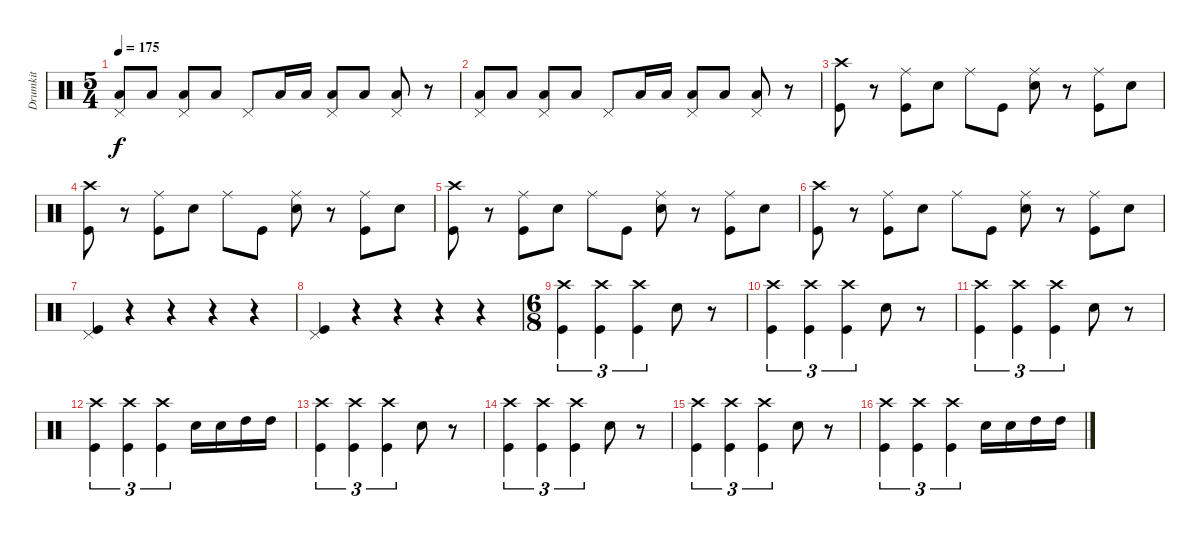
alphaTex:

\track ("Drumkit" "Drumkit") {instrument percussion}
\staff {score}
\articulation defaults
\ts (5 4)
\tempo 175
\clef neutral
\ks c
("Low Tom (hit)" "Pedal Hi-Hat (hit)").8{dy f} "Low Tom (hit)".8 ("Low Tom (hit)" "Pedal Hi-Hat (hit)").8 "Low Tom (hit)".8 "Pedal Hi-Hat (hit)".8 "Low Tom (hit)".16 "Low Tom (hit)".16 ("Low Tom (hit)" "Pedal Hi-Hat (hit)").8 "Low Tom (hit)".8 ("Low Tom (hit)" "Pedal Hi-Hat (hit)").8 r.8 |
("Low Tom (hit)" "Pedal Hi-Hat (hit)").8 "Low Tom (hit)".8 ("Low Tom (hit)" "Pedal Hi-Hat (hit)").8 "Low Tom (hit)".8 "Pedal Hi-Hat (hit)".8 "Low Tom (hit)".16 "Low Tom (hit)".16 ("Low Tom (hit)" "Pedal Hi-Hat (hit)").8 "Low Tom (hit)".8 ("Low Tom (hit)" "Pedal Hi-Hat (hit)").8 r.8 |
("Kick (hit)" "Crash high (hit)").8 r.8 ("Kick (hit)" "Ride (middle)").8 "Snare (hit) 2".8 "Ride (middle)".8 "Kick (hit)".8 ("Snare (hit) 2" "Ride (middle)").8 r.8 ("Kick (hit)" "Ride (middle)").8 "Snare (hit) 2".8 |
("Kick (hit)" "Crash high (hit)").8 r.8 ("Kick (hit)" "Ride (middle)").8 "Snare (hit) 2".8 "Ride (middle)".8 "Kick (hit)".8 ("Snare (hit) 2" "Ride (middle)").8 r.8 ("Kick (hit)" "Ride (middle)").8 "Snare (hit) 2".8 |
("Kick (hit)" "Crash high (hit)").8 r.8 ("Kick (hit)" "Ride (middle)").8 "Snare (hit) 2".8 "Ride (middle)".8 "Kick (hit)".8 ("Snare (hit) 2" "Ride (middle)").8 r.8 ("Kick (hit)" "Ride (middle)").8 "Snare (hit) 2".8 |
("Kick (hit)" "Crash high (hit)").8 r.8 ("Kick (hit)" "Ride (middle)").8 "Snare (hit) 2".8 "Ride (middle)".8 "Kick (hit)".8 ("Snare (hit) 2" "Ride (middle)").8 r.8 ("Kick (hit)" "Ride (middle)").8 "Snare (hit) 2".8 |
("Kick (hit)" "Pedal Hi-Hat (hit)").4 r.4 r.4 r.4 r.4 |
("Kick (hit)" "Pedal Hi-Hat (hit)").4 r.4 r.4 r.4 r.4 |
\ts (6 8)
("Kick (hit)" "Crash high (hit)").4{tu (3 2)} ("Kick (hit)" "Crash high (hit)").4{tu (3 2)} ("Kick (hit)" "Crash high (hit)").4{tu (3 2)} "Snare (hit) 2".8 r.8 |
("Kick (hit)" "Crash high (hit)").4{tu (3 2)} ("Kick (hit)" "Crash high (hit)").4{tu (3 2)} ("Kick (hit)" "Crash high (hit)").4{tu (3 2)} "Snare (hit) 2".8 r.8 |
("Kick (hit)" "Crash high (hit)").4{tu (3 2)} ("Kick (hit)" "Crash high (hit)").4{tu (3 2)} ("Kick (hit)" "Crash high (hit)").4{tu (3 2)} "Snare (hit) 2".8 r.8 |
("Kick (hit)" "Crash high (hit)").4{tu (3 2)} ("Kick (hit)" "Crash high (hit)").4{tu (3 2)} ("Kick (hit)" "Crash high (hit)").4{tu (3 2)} "Snare (hit) 2".16 "Snare (hit) 2".16 "High Tom (hit)".16 "High Tom (hit)".16 |
("Kick (hit)" "Crash high (hit)").4{tu (3 2)} ("Kick (hit)" "Crash high (hit)").4{tu (3 2)} ("Kick (hit)" "Crash high (hit)").4{tu (3 2)} "Snare (hit) 2".8 r.8 |
("Kick (hit)" "Crash high (hit)").4{tu (3 2)} ("Kick (hit)" "Crash high (hit)").4{tu (3 2)} ("Kick (hit)" "Crash high (hit)").4{tu (3 2)} "Snare (hit) 2".8 r.8 |
("Kick (hit)" "Crash high (hit)").4{tu (3 2)} ("Kick (hit)" "Crash high (hit)").4{tu (3 2)} ("Kick (hit)" "Crash high (hit)").4{tu (3 2)} "Snare (hit) 2".8 r.8 |
("Kick (hit)" "Crash high (hit)").4{tu (3 2)} ("Kick (hit)" "Crash high (hit)").4{tu (3 2)} ("Kick (hit)" "Crash high (hit)").4{tu (3 2)} "Snare (hit) 2".16 "Snare (hit) 2".16 "High Tom (hit)".16 "High Tom (hit)".16
